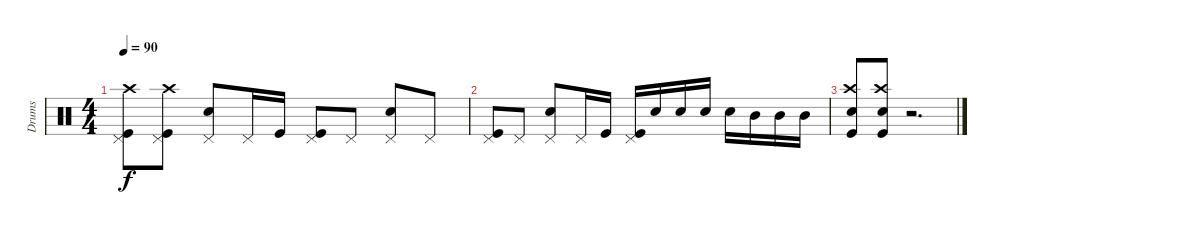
\track ("Drums" "Drums") {instrument percussion}
\staff {score}
\articulation defaults
\ts (4 4)
\tempo 90
\clef neutral
\ks c
("Pedal Hi-Hat (hit)" "Kick (hit)" "Crash high (hit)").8{dy f} ("Pedal Hi-Hat (hit)" "Kick (hit)" "Crash high (hit)").8 ("Pedal Hi-Hat (hit)" "Snare (hit) 2").8 "Pedal Hi-Hat (hit)".16 "Kick (hit)".16 ("Pedal Hi-Hat (hit)" "Kick (hit)").8 "Pedal Hi-Hat (hit)".8 ("Pedal Hi-Hat (hit)" "Snare (hit) 2").8 "Pedal Hi-Hat (hit)".8 |
("Pedal Hi-Hat (hit)" "Kick (hit)").8 "Pedal Hi-Hat (hit)".8 ("Pedal Hi-Hat (hit)" "Snare (hit) 2").8 "Pedal Hi-Hat (hit)".16 "Kick (hit)".16 ("Pedal Hi-Hat (hit)" "Kick (hit)").16 "Snare (hit) 2".16 "Snare (hit) 2".16 "Snare (hit) 2".16 "Snare (hit) 2".16 "Mid Tom (hit)".16 "Mid Tom (hit)".16 "Mid Tom (hit)".16 |
("Kick (hit)" "Snare (hit) 2" "Crash high (hit)").8 ("Kick (hit)" "Snare (hit) 2" "Crash high (hit)").8 r.2{d}
